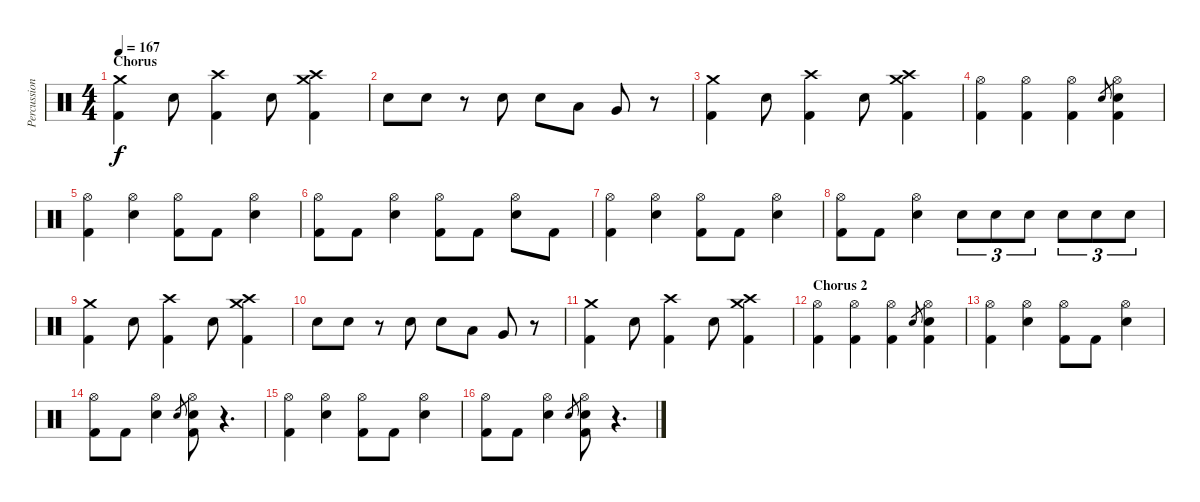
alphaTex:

\track ("Percussion" "Percussion") {instrument percussion}
\staff {score}
\articulation defaults
\ts (4 4)
\section ("" "Chorus")
\tempo 167
\clef neutral
\ks c
("Crash medium (hit)" "Kick (hit) 2").4{dy f} "Electric Snare (hit)".8 ("Crash high (hit)" "Kick (hit) 2").4 "Electric Snare (hit)".8 ("Crash medium (hit)" "Crash high (hit)" "Kick (hit) 2").4 |
"Electric Snare (hit)".8 "Electric Snare (hit)".8 r.8 "Electric Snare (hit)".8 "Electric Snare (hit)".8 "Low Tom (hit)".8 "Very Low Tom (hit)".8 r.8 |
("Crash medium (hit)" "Kick (hit) 2").4 "Electric Snare (hit)".8 ("Crash high (hit)" "Kick (hit) 2").4 "Electric Snare (hit)".8 ("Crash medium (hit)" "Crash high (hit)" "Kick (hit) 2").4 |
("Hi-Hat (open)" "Kick (hit) 2").4 ("Hi-Hat (open)" "Kick (hit) 2").4 ("Hi-Hat (open)" "Kick (hit) 2").4 "Electric Snare (hit)".8{gr} ("Hi-Hat (open)" "Electric Snare (hit)" "Kick (hit) 2").4 |
("Hi-Hat (open)" "Kick (hit) 2").4 ("Hi-Hat (open)" "Electric Snare (hit)").4 ("Hi-Hat (open)" "Kick (hit) 2").8 "Kick (hit) 2".8 ("Hi-Hat (open)" "Electric Snare (hit)").4 |
("Hi-Hat (open)" "Kick (hit) 2").8 "Kick (hit) 2".8 ("Hi-Hat (open)" "Electric Snare (hit)").4 ("Hi-Hat (open)" "Kick (hit) 2").8 "Kick (hit) 2".8 ("Hi-Hat (open)" "Electric Snare (hit)").8 "Kick (hit) 2".8 |
("Hi-Hat (open)" "Kick (hit) 2").4 ("Hi-Hat (open)" "Electric Snare (hit)").4 ("Hi-Hat (open)" "Kick (hit) 2").8 "Kick (hit) 2".8 ("Hi-Hat (open)" "Electric Snare (hit)").4 |
("Hi-Hat (open)" "Kick (hit) 2").8 "Kick (hit) 2".8 ("Hi-Hat (open)" "Electric Snare (hit)").4 "Electric Snare (hit)".8{tu (3 2)} "Electric Snare (hit)".8{tu (3 2)} "Electric Snare (hit)".8{tu (3 2)} "Electric Snare (hit)".8{tu (3 2)} "Electric Snare (hit)".8{tu (3 2)} "Electric Snare (hit)".8{tu (3 2)} |
("Crash medium (hit)" "Kick (hit) 2").4 "Electric Snare (hit)".8 ("Crash high (hit)" "Kick (hit) 2").4 "Electric Snare (hit)".8 ("Crash medium (hit)" "Crash high (hit)" "Kick (hit) 2").4 |
"Electric Snare (hit)".8 "Electric Snare (hit)".8 r.8 "Electric Snare (hit)".8 "Electric Snare (hit)".8 "Low Tom (hit)".8 "Very Low Tom (hit)".8 r.8 |
("Crash medium (hit)" "Kick (hit) 2").4 "Electric Snare (hit)".8 ("Crash high (hit)" "Kick (hit) 2").4 "Electric Snare (hit)".8 ("Crash medium (hit)" "Crash high (hit)" "Kick (hit) 2").4 |
\section ("" "Chorus 2")
("Hi-Hat (open)" "Kick (hit) 2").4 ("Hi-Hat (open)" "Kick (hit) 2").4 ("Hi-Hat (open)" "Kick (hit) 2").4 "Electric Snare (hit)".8{gr} ("Hi-Hat (open)" "Electric Snare (hit)" "Kick (hit) 2").4 |
("Hi-Hat (open)" "Kick (hit) 2").4 ("Hi-Hat (open)" "Electric Snare (hit)").4 ("Hi-Hat (open)" "Kick (hit) 2").8 "Kick (hit) 2".8 ("Hi-Hat (open)" "Electric Snare (hit)").4 |
("Hi-Hat (open)" "Kick (hit) 2").8 "Kick (hit) 2".8 ("Hi-Hat (open)" "Electric Snare (hit)").4 "Electric Snare (hit)".8{gr} ("Hi-Hat (open)" "Electric Snare (hit)" "Kick (hit) 2").8 r.4{d} |
("Hi-Hat (open)" "Kick (hit) 2").4 ("Hi-Hat (open)" "Electric Snare (hit)").4 ("Hi-Hat (open)" "Kick (hit) 2").8 "Kick (hit) 2".8 ("Hi-Hat (open)" "Electric Snare (hit)").4 |
("Hi-Hat (open)" "Kick (hit) 2").8 "Kick (hit) 2".8 ("Hi-Hat (open)" "Electric Snare (hit)").4 "Electric Snare (hit)".8{gr} ("Hi-Hat (open)" "Electric Snare (hit)" "Kick (hit) 2").8 r.4{d}
